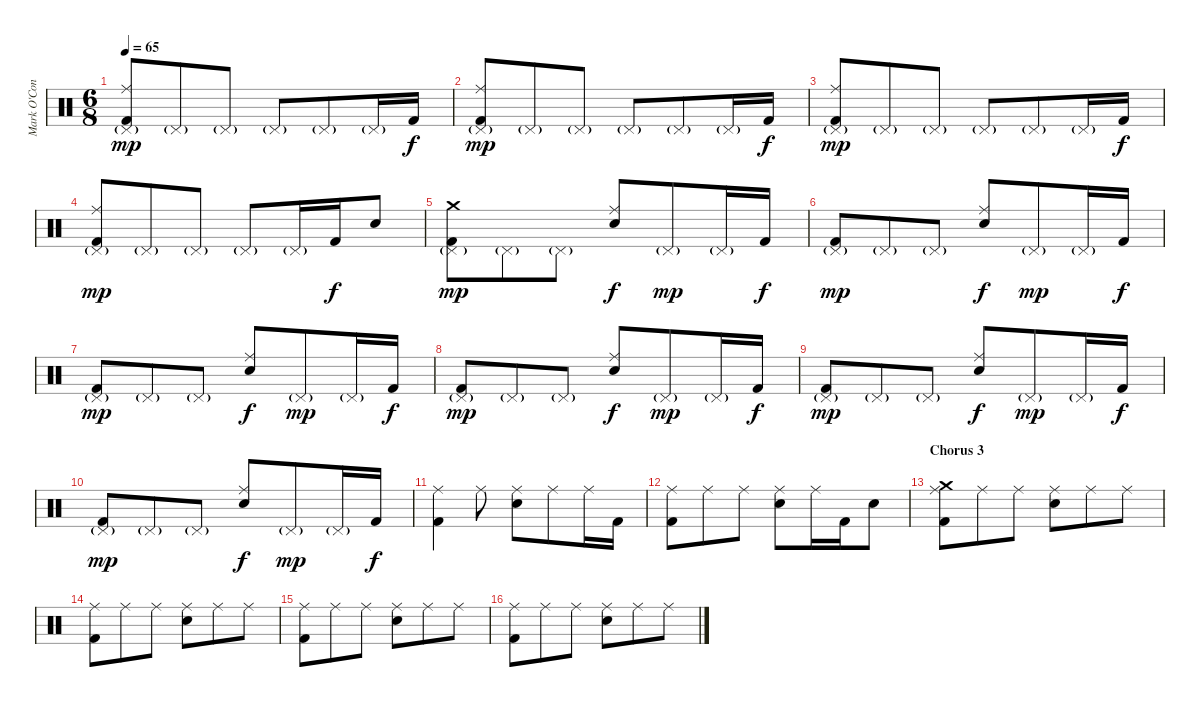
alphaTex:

\track ("Mark O'Connell (Drums)" "Mark O'Con") {instrument percussion}
\staff {score}
\articulation defaults
\ts (6 8)
\tempo 65
\clef neutral
\ks c
("Ride (middle)" "Pedal Hi-Hat (hit)"{g} "Kick (hit) 2").8{dy mp} "Pedal Hi-Hat (hit)"{g}.8 "Pedal Hi-Hat (hit)"{g}.8 "Pedal Hi-Hat (hit)"{g}.8 "Pedal Hi-Hat (hit)"{g}.8 "Pedal Hi-Hat (hit)"{g}.16 "Kick (hit) 2".16{dy f} |
("Ride (middle)" "Pedal Hi-Hat (hit)"{g} "Kick (hit) 2").8{dy mp} "Pedal Hi-Hat (hit)"{g}.8 "Pedal Hi-Hat (hit)"{g}.8 "Pedal Hi-Hat (hit)"{g}.8 "Pedal Hi-Hat (hit)"{g}.8 "Pedal Hi-Hat (hit)"{g}.16 "Kick (hit) 2".16{dy f} |
("Ride (middle)" "Pedal Hi-Hat (hit)"{g} "Kick (hit) 2").8{dy mp} "Pedal Hi-Hat (hit)"{g}.8 "Pedal Hi-Hat (hit)"{g}.8 "Pedal Hi-Hat (hit)"{g}.8 "Pedal Hi-Hat (hit)"{g}.8 "Pedal Hi-Hat (hit)"{g}.16 "Kick (hit) 2".16{dy f} |
("Ride (middle)" "Pedal Hi-Hat (hit)"{g} "Kick (hit) 2").8{dy mp} "Pedal Hi-Hat (hit)"{g}.8 "Pedal Hi-Hat (hit)"{g}.8 "Pedal Hi-Hat (hit)"{g}.8 "Pedal Hi-Hat (hit)"{g}.16 "Kick (hit) 2".16{dy f} "Electric Snare (hit)".8 |
("Crash medium (hit)" "Pedal Hi-Hat (hit)"{g} "Kick (hit) 2").8{dy mp} "Pedal Hi-Hat (hit)"{g}.8 "Pedal Hi-Hat (hit)"{g}.8 ("Ride (middle)" "Electric Snare (hit)").8{dy f} "Pedal Hi-Hat (hit)"{g}.8{dy mp} "Pedal Hi-Hat (hit)"{g}.16 "Kick (hit) 2".16{dy f} |
("Pedal Hi-Hat (hit)"{g} "Kick (hit) 2").8{dy mp} "Pedal Hi-Hat (hit)"{g}.8 "Pedal Hi-Hat (hit)"{g}.8 ("Ride (middle)" "Electric Snare (hit)").8{dy f} "Pedal Hi-Hat (hit)"{g}.8{dy mp} "Pedal Hi-Hat (hit)"{g}.16 "Kick (hit) 2".16{dy f} |
("Pedal Hi-Hat (hit)"{g} "Kick (hit) 2").8{dy mp} "Pedal Hi-Hat (hit)"{g}.8 "Pedal Hi-Hat (hit)"{g}.8 ("Ride (middle)" "Electric Snare (hit)").8{dy f} "Pedal Hi-Hat (hit)"{g}.8{dy mp} "Pedal Hi-Hat (hit)"{g}.16 "Kick (hit) 2".16{dy f} |
("Pedal Hi-Hat (hit)"{g} "Kick (hit) 2").8{dy mp} "Pedal Hi-Hat (hit)"{g}.8 "Pedal Hi-Hat (hit)"{g}.8 ("Ride (middle)" "Electric Snare (hit)").8{dy f} "Pedal Hi-Hat (hit)"{g}.8{dy mp} "Pedal Hi-Hat (hit)"{g}.16 "Kick (hit) 2".16{dy f} |
("Pedal Hi-Hat (hit)"{g} "Kick (hit) 2").8{dy mp} "Pedal Hi-Hat (hit)"{g}.8 "Pedal Hi-Hat (hit)"{g}.8 ("Ride (middle)" "Electric Snare (hit)").8{dy f} "Pedal Hi-Hat (hit)"{g}.8{dy mp} "Pedal Hi-Hat (hit)"{g}.16 "Kick (hit) 2".16{dy f} |
("Pedal Hi-Hat (hit)"{g} "Kick (hit) 2").8{dy mp} "Pedal Hi-Hat (hit)"{g}.8 "Pedal Hi-Hat (hit)"{g}.8 ("Ride (middle)" "Electric Snare (hit)").8{dy f} "Pedal Hi-Hat (hit)"{g}.8{dy mp} "Pedal Hi-Hat (hit)"{g}.16 "Kick (hit) 2".16{dy f} |
("Ride (middle)" "Kick (hit) 2").4 "Ride (middle)".8 ("Ride (middle)" "Electric Snare (hit)").8 "Ride (middle)".8 "Ride (middle)".16 "Kick (hit) 2".16 |
("Ride (middle)" "Kick (hit) 2").8 "Ride (middle)".8 "Ride (middle)".8 ("Ride (middle)" "Electric Snare (hit)").8 "Ride (middle)".16 "Kick (hit) 2".16 "Electric Snare (hit)".8 |
\section ("" "Chorus 3")
("Crash medium (hit)" "Ride (middle)" "Kick (hit) 2").8 "Ride (middle)".8 "Ride (middle)".8 ("Ride (middle)" "Electric Snare (hit)").8 "Ride (middle)".8 "Ride (middle)".8 |
("Ride (middle)" "Kick (hit) 2").8 "Ride (middle)".8 "Ride (middle)".8 ("Ride (middle)" "Electric Snare (hit)").8 "Ride (middle)".8 "Ride (middle)".8 |
("Ride (middle)" "Kick (hit) 2").8 "Ride (middle)".8 "Ride (middle)".8 ("Ride (middle)" "Electric Snare (hit)").8 "Ride (middle)".8 "Ride (middle)".8 |
("Ride (middle)" "Kick (hit) 2").8 "Ride (middle)".8 "Ride (middle)".8 ("Ride (middle)" "Electric Snare (hit)").8 "Ride (middle)".8 "Ride (middle)".8
